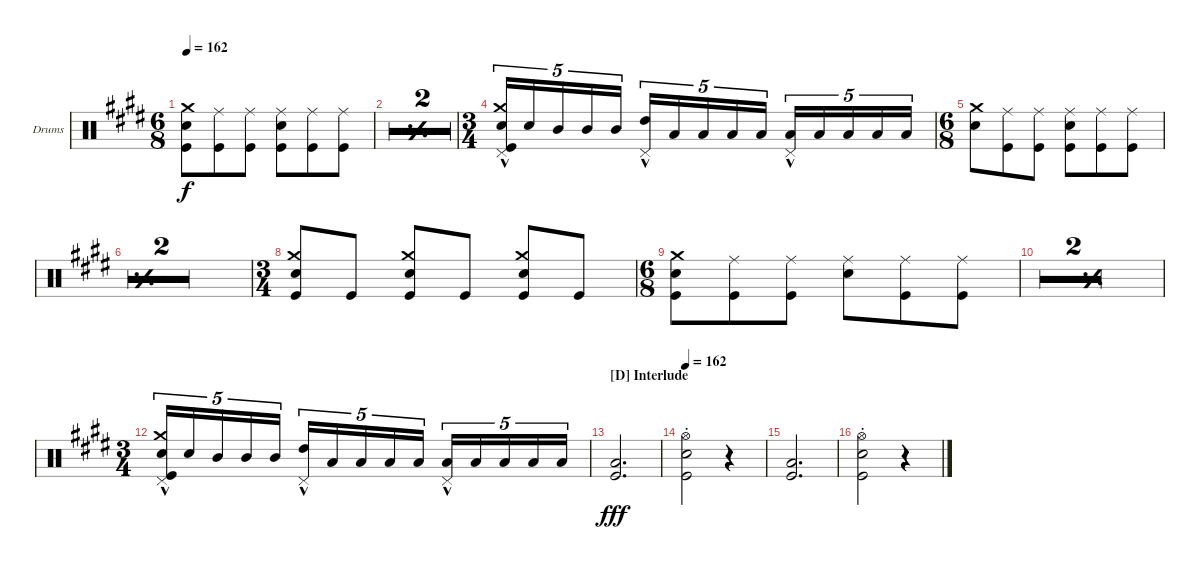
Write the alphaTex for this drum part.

\defaultSystemsLayout 4
\bracketExtendMode groupsimilarinstruments
\firstSystemTrackNameOrientation horizontal
\otherSystemsTrackNameOrientation horizontal
\track ("Dave Grohl (Drums)" "Drums") {multiBarRest instrument percussion}
\staff {score}
\articulation defaults
\ts (6 8)
\tempo 162
\clef neutral
\ks e
("Snare (hit) 2" "Crash medium (hit)" "Kick (hit)").8{dy f} ("Ride (middle)" "Kick (hit)").8 ("Ride (middle)" "Kick (hit)").8 ("Snare (hit) 2" "Ride (middle)" "Kick (hit)").8 ("Ride (middle)" "Kick (hit)").8 ("Ride (middle)" "Kick (hit)").8 |
\simile simple
|
|
\ts (3 4)
\simile none
("Snare (hit) 2"{hac} "Crash medium (hit)" "Kick (hit)" "Pedal Hi-Hat (hit)").16{tu (5 4)} "Snare (hit) 2".16{tu (5 4)} "Mid Tom (hit)".16{tu (5 4)} "Mid Tom (hit)".16{tu (5 4)} "Mid Tom (hit)".16{tu (5 4)} ("High Tom (hit)"{hac} "Pedal Hi-Hat (hit)").16{tu (5 4)} "Low Tom (hit)".16{tu (5 4)} "Low Tom (hit)".16{tu (5 4)} "Low Tom (hit)".16{tu (5 4)} "Low Tom (hit)".16{tu (5 4)} ("Low Tom (hit)"{hac} "Pedal Hi-Hat (hit)").16{tu (5 4)} "Low Tom (hit)".16{tu (5 4)} "Low Tom (hit)".16{tu (5 4)} "Low Tom (hit)".16{tu (5 4)} "Low Tom (hit)".16{tu (5 4)} |
\ts (6 8)
("Snare (hit) 2" "Crash medium (hit)").8 ("Ride (middle)" "Kick (hit)").8 ("Ride (middle)" "Kick (hit)").8 ("Snare (hit) 2" "Ride (middle)" "Kick (hit)").8 ("Ride (middle)" "Kick (hit)").8 ("Ride (middle)" "Kick (hit)").8 |
\simile simple
|
|
\ts (3 4)
\simile none
("Snare (hit) 2" "Crash medium (hit)" "Kick (hit)").8 "Kick (hit)".8 ("Snare (hit) 2" "Crash medium (hit)" "Kick (hit)").8 "Kick (hit)".8 ("Snare (hit) 2" "Crash medium (hit)" "Kick (hit)").8 "Kick (hit)".8 |
\ts (6 8)
("Snare (hit) 2" "Crash medium (hit)" "Kick (hit)").8 ("Ride (middle)" "Kick (hit)").8 ("Ride (middle)" "Kick (hit)").8 ("Snare (hit) 2" "Ride (middle)").8 ("Ride (middle)" "Kick (hit)").8 ("Ride (middle)" "Kick (hit)").8 |
\simile simple
|
|
\ts (3 4)
\simile none
("Snare (hit) 2"{hac} "Crash medium (hit)" "Kick (hit)" "Pedal Hi-Hat (hit)").16{tu (5 4)} "Snare (hit) 2".16{tu (5 4)} "Mid Tom (hit)".16{tu (5 4)} "Mid Tom (hit)".16{tu (5 4)} "Mid Tom (hit)".16{tu (5 4)} ("High Tom (hit)"{hac} "Pedal Hi-Hat (hit)").16{tu (5 4)} "Low Tom (hit)".16{tu (5 4)} "Low Tom (hit)".16{tu (5 4)} "Low Tom (hit)".16{tu (5 4)} "Low Tom (hit)".16{tu (5 4)} ("Low Tom (hit)"{hac} "Pedal Hi-Hat (hit)").16{tu (5 4)} "Low Tom (hit)".16{tu (5 4)} "Low Tom (hit)".16{tu (5 4)} "Low Tom (hit)".16{tu (5 4)} "Low Tom (hit)".16{tu (5 4)} |
\section ("D" "Interlude")
("Low Tom (hit)" "Kick (hit)").2{d dy fff} |
\tempo 162
("Kick (hit)"{st} "Hi-Hat (open)"{st} "Snare (hit) 2"{st}).2 r.4 |
("Low Tom (hit)" "Kick (hit)").2{d} |
("Kick (hit)"{st} "Hi-Hat (open)"{st} "Snare (hit) 2"{st}).2 r.4
